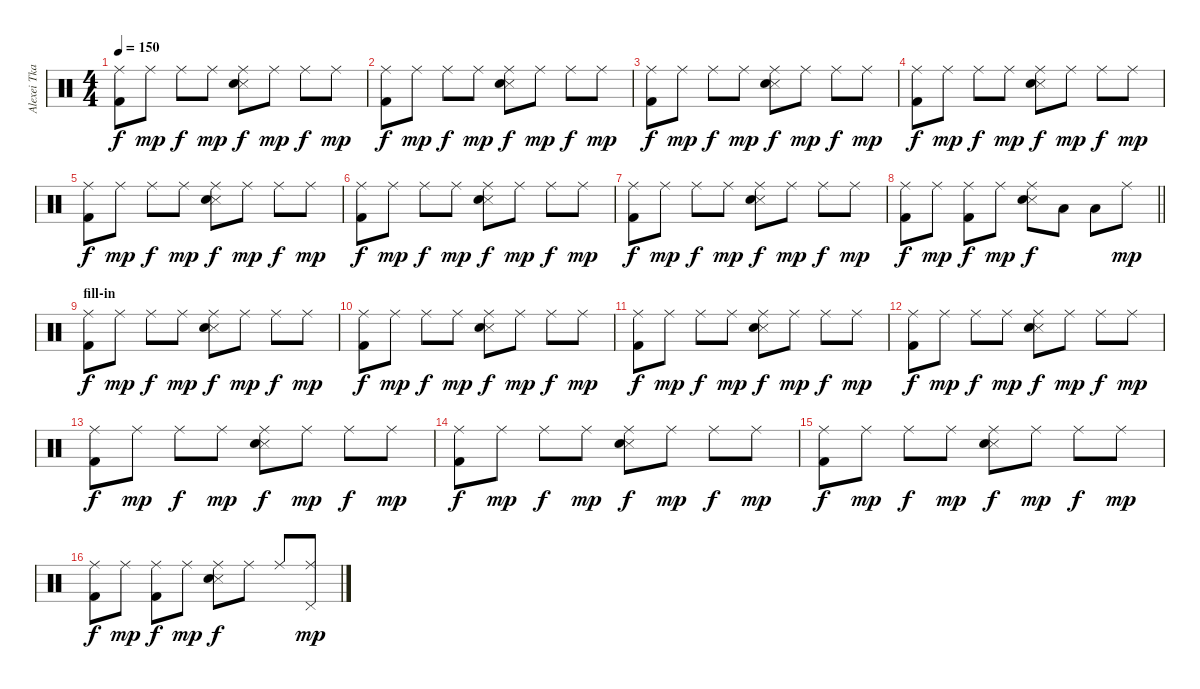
\track ("Alexei Tkachevskiy " "Alexei Tka") {instrument percussion}
\staff {score}
\articulation defaults
\ts (4 4)
\tempo 150
\clef neutral
\ks c
("Ride (middle)" "Kick (hit) 2").8{dy f} "Ride (middle)".8{dy mp} "Ride (middle)".8{dy f} "Ride (middle)".8{dy mp} ("Ride (middle)" "Snare (side stick) 3" "Snare (hit) 2").8{dy f} "Ride (middle)".8{dy mp} "Ride (middle)".8{dy f} "Ride (middle)".8{dy mp} |
("Ride (middle)" "Kick (hit) 2").8{dy f} "Ride (middle)".8{dy mp} "Ride (middle)".8{dy f} "Ride (middle)".8{dy mp} ("Ride (middle)" "Snare (side stick) 3" "Snare (hit) 2").8{dy f} "Ride (middle)".8{dy mp} "Ride (middle)".8{dy f} "Ride (middle)".8{dy mp} |
("Ride (middle)" "Kick (hit) 2").8{dy f} "Ride (middle)".8{dy mp} "Ride (middle)".8{dy f} "Ride (middle)".8{dy mp} ("Ride (middle)" "Snare (side stick) 3" "Snare (hit) 2").8{dy f} "Ride (middle)".8{dy mp} "Ride (middle)".8{dy f} "Ride (middle)".8{dy mp} |
("Ride (middle)" "Kick (hit) 2").8{dy f} "Ride (middle)".8{dy mp} "Ride (middle)".8{dy f} "Ride (middle)".8{dy mp} ("Ride (middle)" "Snare (side stick) 3" "Snare (hit) 2").8{dy f} "Ride (middle)".8{dy mp} "Ride (middle)".8{dy f} "Ride (middle)".8{dy mp} |
("Ride (middle)" "Kick (hit) 2").8{dy f} "Ride (middle)".8{dy mp} "Ride (middle)".8{dy f} "Ride (middle)".8{dy mp} ("Ride (middle)" "Snare (side stick) 3" "Snare (hit) 2").8{dy f} "Ride (middle)".8{dy mp} "Ride (middle)".8{dy f} "Ride (middle)".8{dy mp} |
("Ride (middle)" "Kick (hit) 2").8{dy f} "Ride (middle)".8{dy mp} "Ride (middle)".8{dy f} "Ride (middle)".8{dy mp} ("Ride (middle)" "Snare (side stick) 3" "Snare (hit) 2").8{dy f} "Ride (middle)".8{dy mp} "Ride (middle)".8{dy f} "Ride (middle)".8{dy mp} |
("Ride (middle)" "Kick (hit) 2").8{dy f} "Ride (middle)".8{dy mp} "Ride (middle)".8{dy f} "Ride (middle)".8{dy mp} ("Ride (middle)" "Snare (side stick) 3" "Snare (hit) 2").8{dy f} "Ride (middle)".8{dy mp} "Ride (middle)".8{dy f} "Ride (middle)".8{dy mp} |
\barLineRight lightlight
("Ride (middle)" "Kick (hit) 2").8{dy f} "Ride (middle)".8{dy mp} ("Ride (middle)" "Kick (hit) 2").8{dy f} "Ride (middle)".8{dy mp} ("Ride (middle)" "Snare (side stick) 3" "Snare (hit) 2").8{dy f} "Low Tom (hit)".8 "Low Tom (hit)".8 "Ride (middle)".8{dy mp} |
\section ("" "fill-in")
("Ride (middle)" "Kick (hit) 2").8{dy f} "Ride (middle)".8{dy mp} "Ride (middle)".8{dy f} "Ride (middle)".8{dy mp} ("Ride (middle)" "Snare (side stick) 3" "Snare (hit) 2").8{dy f} "Ride (middle)".8{dy mp} "Ride (middle)".8{dy f} "Ride (middle)".8{dy mp} |
("Ride (middle)" "Kick (hit) 2").8{dy f} "Ride (middle)".8{dy mp} "Ride (middle)".8{dy f} "Ride (middle)".8{dy mp} ("Ride (middle)" "Snare (side stick) 3" "Snare (hit) 2").8{dy f} "Ride (middle)".8{dy mp} "Ride (middle)".8{dy f} "Ride (middle)".8{dy mp} |
("Ride (middle)" "Kick (hit) 2").8{dy f} "Ride (middle)".8{dy mp} "Ride (middle)".8{dy f} "Ride (middle)".8{dy mp} ("Ride (middle)" "Snare (side stick) 3" "Snare (hit) 2").8{dy f} "Ride (middle)".8{dy mp} "Ride (middle)".8{dy f} "Ride (middle)".8{dy mp} |
("Ride (middle)" "Kick (hit) 2").8{dy f} "Ride (middle)".8{dy mp} "Ride (middle)".8{dy f} "Ride (middle)".8{dy mp} ("Ride (middle)" "Snare (side stick) 3" "Snare (hit) 2").8{dy f} "Ride (middle)".8{dy mp} "Ride (middle)".8{dy f} "Ride (middle)".8{dy mp} |
("Ride (middle)" "Kick (hit) 2").8{dy f} "Ride (middle)".8{dy mp} "Ride (middle)".8{dy f} "Ride (middle)".8{dy mp} ("Ride (middle)" "Snare (side stick) 3" "Snare (hit) 2").8{dy f} "Ride (middle)".8{dy mp} "Ride (middle)".8{dy f} "Ride (middle)".8{dy mp} |
("Ride (middle)" "Kick (hit) 2").8{dy f} "Ride (middle)".8{dy mp} "Ride (middle)".8{dy f} "Ride (middle)".8{dy mp} ("Ride (middle)" "Snare (side stick) 3" "Snare (hit) 2").8{dy f} "Ride (middle)".8{dy mp} "Ride (middle)".8{dy f} "Ride (middle)".8{dy mp} |
("Ride (middle)" "Kick (hit) 2").8{dy f} "Ride (middle)".8{dy mp} "Ride (middle)".8{dy f} "Ride (middle)".8{dy mp} ("Ride (middle)" "Snare (side stick) 3" "Snare (hit) 2").8{dy f} "Ride (middle)".8{dy mp} "Ride (middle)".8{dy f} "Ride (middle)".8{dy mp} |
("Ride (middle)" "Kick (hit) 2").8{dy f} "Ride (middle)".8{dy mp} ("Ride (middle)" "Kick (hit) 2").8{dy f} "Ride (middle)".8{dy mp} ("Ride (middle)" "Snare (side stick) 3" "Snare (hit) 2").8{dy f} "Ride (middle)".8 "Ride (middle)".8 ("Ride (middle)" "Pedal Hi-Hat (hit)").8{dy mp}
